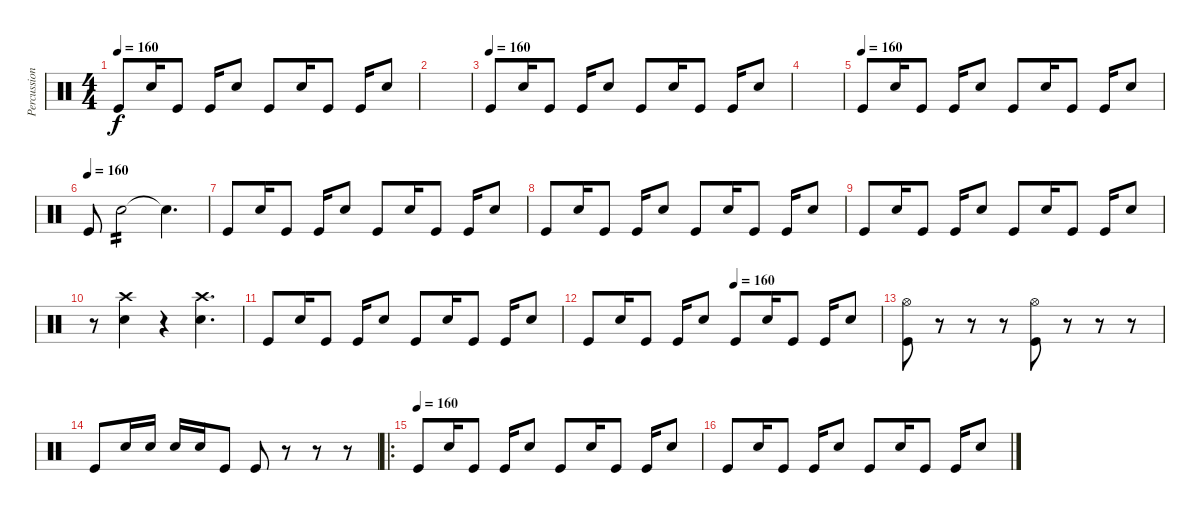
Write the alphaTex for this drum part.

\track ("Percussions" "Percussion") {instrument percussion}
\staff {score}
\articulation defaults
\ts (4 4)
\tempo 160
\clef neutral
\ks c "Kick (hit)".8{dy f} "Snare (hit) 2".16 "Kick (hit)".8 "Kick (hit)".16 "Snare (hit) 2".8 "Kick (hit)".8 "Snare (hit) 2".16 "Kick (hit)".8 "Kick (hit)".16 "Snare (hit) 2".8
|
|
\tempo (160)
"Kick (hit)".8 "Snare (hit) 2".16 "Kick (hit)".8 "Kick (hit)".16 "Snare (hit) 2".8 "Kick (hit)".8 "Snare (hit) 2".16 "Kick (hit)".8 "Kick (hit)".16 "Snare (hit) 2".8 |
|
\tempo (160)
"Kick (hit)".8 "Snare (hit) 2".16 "Kick (hit)".8 "Kick (hit)".16 "Snare (hit) 2".8 "Kick (hit)".8 "Snare (hit) 2".16 "Kick (hit)".8 "Kick (hit)".16 "Snare (hit) 2".8 |
\tempo (160)
"Kick (hit)".8 "Snare (hit) 2".2{tp 2} "Snare (hit) 2"{t}.4{d} |
"Kick (hit)".8 "Snare (hit) 2".16 "Kick (hit)".8 "Kick (hit)".16 "Snare (hit) 2".8 "Kick (hit)".8 "Snare (hit) 2".16 "Kick (hit)".8 "Kick (hit)".16 "Snare (hit) 2".8 |
"Kick (hit)".8 "Snare (hit) 2".16 "Kick (hit)".8 "Kick (hit)".16 "Snare (hit) 2".8 "Kick (hit)".8 "Snare (hit) 2".16 "Kick (hit)".8 "Kick (hit)".16 "Snare (hit) 2".8 |
"Kick (hit)".8 "Snare (hit) 2".16 "Kick (hit)".8 "Kick (hit)".16 "Snare (hit) 2".8 "Kick (hit)".8 "Snare (hit) 2".16 "Kick (hit)".8 "Kick (hit)".16 "Snare (hit) 2".8 |
r.8 ("Crash high (hit)" "Snare (hit) 2").4 r.4 ("Crash high (hit)" "Snare (hit) 2").4{d} |
"Kick (hit)".8 "Snare (hit) 2".16 "Kick (hit)".8 "Kick (hit)".16 "Snare (hit) 2".8 "Kick (hit)".8 "Snare (hit) 2".16 "Kick (hit)".8 "Kick (hit)".16 "Snare (hit) 2".8 |
\tempo (160 0.5)
"Kick (hit)".8 "Snare (hit) 2".16 "Kick (hit)".8 "Kick (hit)".16 "Snare (hit) 2".8 "Kick (hit)".8 "Snare (hit) 2".16 "Kick (hit)".8 "Kick (hit)".16 "Snare (hit) 2".8 |
("Hi-Hat (open)" "Kick (hit)").8 r.8 r.8 r.8 ("Hi-Hat (open)" "Kick (hit)").8 r.8 r.8 r.8 |
"Kick (hit)".8 "Snare (hit) 2".16 "Snare (hit) 2".16 "Snare (hit) 2".16 "Snare (hit) 2".16 "Kick (hit)".8 "Kick (hit)".8 r.8 r.8 r.8 |
\ro
\tempo (160)
"Kick (hit)".8 "Snare (hit) 2".16 "Kick (hit)".8 "Kick (hit)".16 "Snare (hit) 2".8 "Kick (hit)".8 "Snare (hit) 2".16 "Kick (hit)".8 "Kick (hit)".16 "Snare (hit) 2".8 |
"Kick (hit)".8 "Snare (hit) 2".16 "Kick (hit)".8 "Kick (hit)".16 "Snare (hit) 2".8 "Kick (hit)".8 "Snare (hit) 2".16 "Kick (hit)".8 "Kick (hit)".16 "Snare (hit) 2".8
